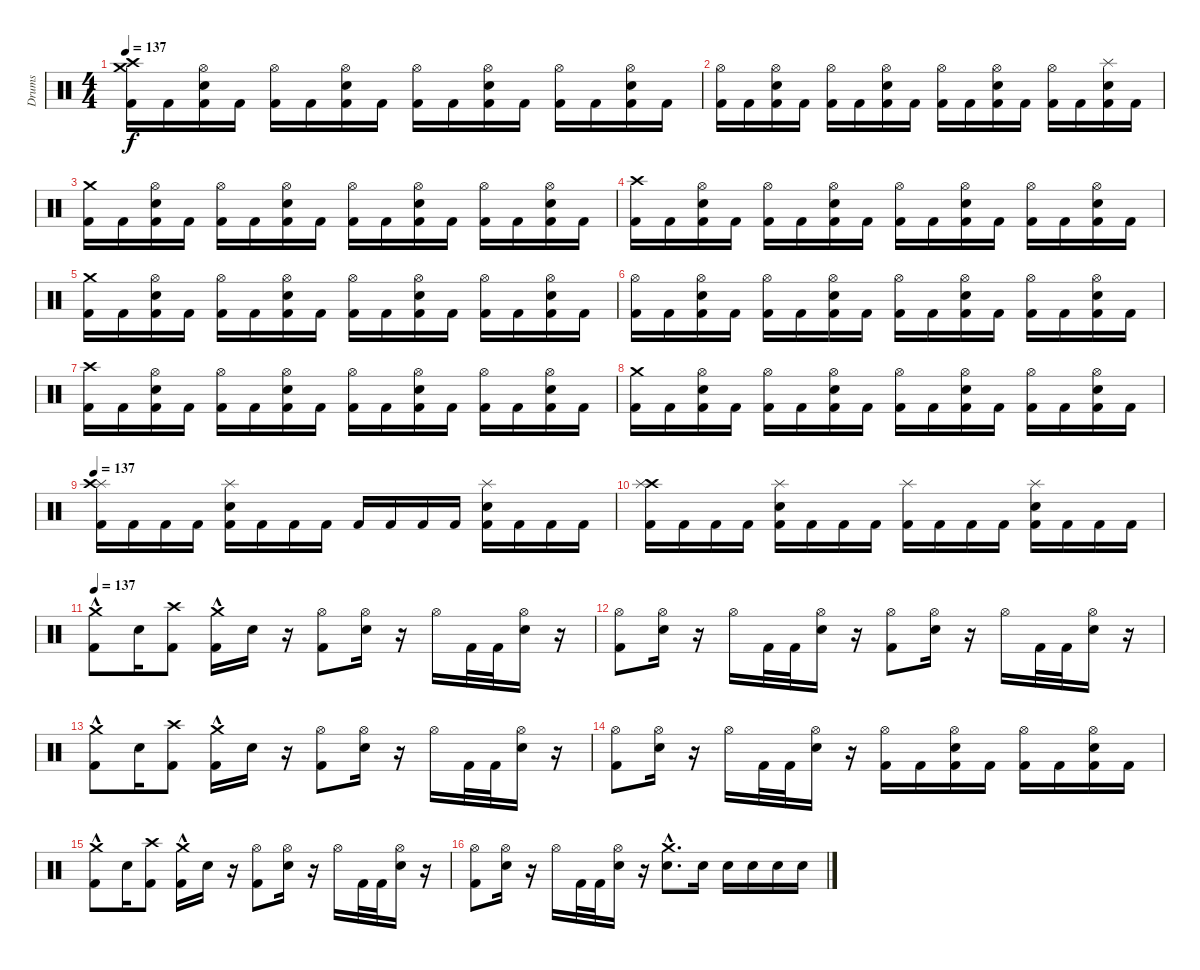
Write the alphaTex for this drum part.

\track ("Drums" "Drums") {instrument percussion}
\staff {score}
\articulation defaults
\ts (4 4)
\tempo 137
\clef neutral
\ks c
("Crash medium (hit)" "Crash high (hit)" "Kick (hit) 2").16{dy f} "Kick (hit) 2".16 ("Hi-Hat (open)" "Snare (hit) 2" "Kick (hit) 2").16 "Kick (hit) 2".16 ("Hi-Hat (open)" "Kick (hit) 2").16 "Kick (hit) 2".16 ("Hi-Hat (open)" "Snare (hit) 2" "Kick (hit) 2").16 "Kick (hit) 2".16 ("Hi-Hat (open)" "Kick (hit) 2").16 "Kick (hit) 2".16 ("Hi-Hat (open)" "Snare (hit) 2" "Kick (hit) 2").16 "Kick (hit) 2".16 ("Hi-Hat (open)" "Kick (hit) 2").16 "Kick (hit) 2".16 ("Hi-Hat (open)" "Snare (hit) 2" "Kick (hit) 2").16 "Kick (hit) 2".16 |
("Hi-Hat (open)" "Kick (hit) 2").16 "Kick (hit) 2".16 ("Hi-Hat (open)" "Snare (hit) 2" "Kick (hit) 2").16 "Kick (hit) 2".16 ("Hi-Hat (open)" "Kick (hit) 2").16 "Kick (hit) 2".16 ("Hi-Hat (open)" "Snare (hit) 2" "Kick (hit) 2").16 "Kick (hit) 2".16 ("Hi-Hat (open)" "Kick (hit) 2").16 "Kick (hit) 2".16 ("Hi-Hat (open)" "Snare (hit) 2" "Kick (hit) 2").16 "Kick (hit) 2".16 ("Hi-Hat (open)" "Kick (hit) 2").16 "Kick (hit) 2".16 ("Splash (hit)" "Snare (hit) 2" "Kick (hit) 2").16 "Kick (hit) 2".16 |
("Crash medium (hit)" "Kick (hit) 2").16 "Kick (hit) 2".16 ("Hi-Hat (open)" "Snare (hit) 2" "Kick (hit) 2").16 "Kick (hit) 2".16 ("Hi-Hat (open)" "Kick (hit) 2").16 "Kick (hit) 2".16 ("Hi-Hat (open)" "Snare (hit) 2" "Kick (hit) 2").16 "Kick (hit) 2".16 ("Hi-Hat (open)" "Kick (hit) 2").16 "Kick (hit) 2".16 ("Hi-Hat (open)" "Snare (hit) 2" "Kick (hit) 2").16 "Kick (hit) 2".16 ("Hi-Hat (open)" "Kick (hit) 2").16 "Kick (hit) 2".16 ("Hi-Hat (open)" "Snare (hit) 2" "Kick (hit) 2").16 "Kick (hit) 2".16 |
("Crash high (hit)" "Kick (hit) 2").16 "Kick (hit) 2".16 ("Hi-Hat (open)" "Snare (hit) 2" "Kick (hit) 2").16 "Kick (hit) 2".16 ("Hi-Hat (open)" "Kick (hit) 2").16 "Kick (hit) 2".16 ("Hi-Hat (open)" "Snare (hit) 2" "Kick (hit) 2").16 "Kick (hit) 2".16 ("Hi-Hat (open)" "Kick (hit) 2").16 "Kick (hit) 2".16 ("Hi-Hat (open)" "Snare (hit) 2" "Kick (hit) 2").16 "Kick (hit) 2".16 ("Hi-Hat (open)" "Kick (hit) 2").16 "Kick (hit) 2".16 ("Hi-Hat (open)" "Snare (hit) 2" "Kick (hit) 2").16 "Kick (hit) 2".16 |
("Crash medium (hit)" "Kick (hit) 2").16 "Kick (hit) 2".16 ("Hi-Hat (open)" "Snare (hit) 2" "Kick (hit) 2").16 "Kick (hit) 2".16 ("Hi-Hat (open)" "Kick (hit) 2").16 "Kick (hit) 2".16 ("Hi-Hat (open)" "Snare (hit) 2" "Kick (hit) 2").16 "Kick (hit) 2".16 ("Hi-Hat (open)" "Kick (hit) 2").16 "Kick (hit) 2".16 ("Hi-Hat (open)" "Snare (hit) 2" "Kick (hit) 2").16 "Kick (hit) 2".16 ("Hi-Hat (open)" "Kick (hit) 2").16 "Kick (hit) 2".16 ("Hi-Hat (open)" "Snare (hit) 2" "Kick (hit) 2").16 "Kick (hit) 2".16 |
("Hi-Hat (open)" "Kick (hit) 2").16 "Kick (hit) 2".16 ("Hi-Hat (open)" "Snare (hit) 2" "Kick (hit) 2").16 "Kick (hit) 2".16 ("Hi-Hat (open)" "Kick (hit) 2").16 "Kick (hit) 2".16 ("Hi-Hat (open)" "Snare (hit) 2" "Kick (hit) 2").16 "Kick (hit) 2".16 ("Hi-Hat (open)" "Kick (hit) 2").16 "Kick (hit) 2".16 ("Hi-Hat (open)" "Snare (hit) 2" "Kick (hit) 2").16 "Kick (hit) 2".16 ("Hi-Hat (open)" "Kick (hit) 2").16 "Kick (hit) 2".16 ("Hi-Hat (open)" "Snare (hit) 2" "Kick (hit) 2").16 "Kick (hit) 2".16 |
("Crash high (hit)" "Kick (hit) 2").16 "Kick (hit) 2".16 ("Hi-Hat (open)" "Snare (hit) 2" "Kick (hit) 2").16 "Kick (hit) 2".16 ("Hi-Hat (open)" "Kick (hit) 2").16 "Kick (hit) 2".16 ("Hi-Hat (open)" "Snare (hit) 2" "Kick (hit) 2").16 "Kick (hit) 2".16 ("Hi-Hat (open)" "Kick (hit) 2").16 "Kick (hit) 2".16 ("Hi-Hat (open)" "Snare (hit) 2" "Kick (hit) 2").16 "Kick (hit) 2".16 ("Hi-Hat (open)" "Kick (hit) 2").16 "Kick (hit) 2".16 ("Hi-Hat (open)" "Snare (hit) 2" "Kick (hit) 2").16 "Kick (hit) 2".16 |
("Crash medium (hit)" "Kick (hit) 2").16 "Kick (hit) 2".16 ("Hi-Hat (open)" "Snare (hit) 2" "Kick (hit) 2").16 "Kick (hit) 2".16 ("Hi-Hat (open)" "Kick (hit) 2").16 "Kick (hit) 2".16 ("Hi-Hat (open)" "Snare (hit) 2" "Kick (hit) 2").16 "Kick (hit) 2".16 ("Hi-Hat (open)" "Kick (hit) 2").16 "Kick (hit) 2".16 ("Hi-Hat (open)" "Snare (hit) 2" "Kick (hit) 2").16 "Kick (hit) 2".16 ("Hi-Hat (open)" "Kick (hit) 2").16 "Kick (hit) 2".16 ("Hi-Hat (open)" "Snare (hit) 2" "Kick (hit) 2").16 "Kick (hit) 2".16 |
\tempo 137
("Splash (hit)" "Crash high (hit)" "Kick (hit) 2").16 "Kick (hit) 2".16 "Kick (hit) 2".16 "Kick (hit) 2".16 ("Splash (hit)" "Snare (hit) 2" "Kick (hit) 2").16 "Kick (hit) 2".16 "Kick (hit) 2".16 "Kick (hit) 2".16 "Kick (hit) 2".16 "Kick (hit) 2".16 "Kick (hit) 2".16 "Kick (hit) 2".16 ("Splash (hit)" "Snare (hit) 2" "Kick (hit) 2").16 "Kick (hit) 2".16 "Kick (hit) 2".16 "Kick (hit) 2".16 |
("Crash high (hit)" "Splash (hit)" "Kick (hit) 2").16 "Kick (hit) 2".16 "Kick (hit) 2".16 "Kick (hit) 2".16 ("Splash (hit)" "Snare (hit) 2" "Kick (hit) 2").16 "Kick (hit) 2".16 "Kick (hit) 2".16 "Kick (hit) 2".16 ("Splash (hit)" "Kick (hit) 2").16 "Kick (hit) 2".16 "Kick (hit) 2".16 "Kick (hit) 2".16 ("Splash (hit)" "Snare (hit) 2" "Kick (hit) 2").16 "Kick (hit) 2".16 "Kick (hit) 2".16 "Kick (hit) 2".16 |
\tempo 137
("Crash medium (hit)"{hac} "Kick (hit) 2").8 "Snare (hit) 2".16 ("Crash high (hit)" "Kick (hit) 2").8 ("Crash medium (hit)"{hac} "Kick (hit) 2").16 "Snare (hit) 2".16 r.16 ("Hi-Hat (open)" "Kick (hit) 2").8 ("Hi-Hat (open)" "Snare (hit) 2").16 r.16 "Hi-Hat (open)".16 "Kick (hit) 2".32 "Kick (hit) 2".32 ("Hi-Hat (open)" "Snare (hit) 2").16 r.16 |
("Hi-Hat (open)" "Kick (hit) 2").8 ("Hi-Hat (open)" "Snare (hit) 2").16 r.16 "Hi-Hat (open)".16 "Kick (hit) 2".32 "Kick (hit) 2".32 ("Hi-Hat (open)" "Snare (hit) 2").16 r.16 ("Hi-Hat (open)" "Kick (hit) 2").8 ("Hi-Hat (open)" "Snare (hit) 2").16 r.16 "Hi-Hat (open)".16 "Kick (hit) 2".32 "Kick (hit) 2".32 ("Hi-Hat (open)" "Snare (hit) 2").16 r.16 |
("Crash medium (hit)"{hac} "Kick (hit) 2").8 "Snare (hit) 2".16 ("Crash high (hit)" "Kick (hit) 2").8 ("Crash medium (hit)"{hac} "Kick (hit) 2").16 "Snare (hit) 2".16 r.16 ("Hi-Hat (open)" "Kick (hit) 2").8 ("Hi-Hat (open)" "Snare (hit) 2").16 r.16 "Hi-Hat (open)".16 "Kick (hit) 2".32 "Kick (hit) 2".32 ("Hi-Hat (open)" "Snare (hit) 2").16 r.16 |
("Hi-Hat (open)" "Kick (hit) 2").8 ("Hi-Hat (open)" "Snare (hit) 2").16 r.16 "Hi-Hat (open)".16 "Kick (hit) 2".32 "Kick (hit) 2".32 ("Hi-Hat (open)" "Snare (hit) 2").16 r.16 ("Hi-Hat (open)" "Kick (hit) 2").16 "Kick (hit) 2".16 ("Hi-Hat (open)" "Snare (hit) 2" "Kick (hit) 2").16 "Kick (hit) 2".16 ("Hi-Hat (open)" "Kick (hit) 2").16 "Kick (hit) 2".16 ("Hi-Hat (open)" "Snare (hit) 2" "Kick (hit) 2").16 "Kick (hit) 2".16 |
("Crash medium (hit)"{hac} "Kick (hit) 2").8 "Snare (hit) 2".16 ("Crash high (hit)" "Kick (hit) 2").8 ("Crash medium (hit)"{hac} "Kick (hit) 2").16 "Snare (hit) 2".16 r.16 ("Hi-Hat (open)" "Kick (hit) 2").8 ("Hi-Hat (open)" "Snare (hit) 2").16 r.16 "Hi-Hat (open)".16 "Kick (hit) 2".32 "Kick (hit) 2".32 ("Hi-Hat (open)" "Snare (hit) 2").16 r.16 |
("Hi-Hat (open)" "Kick (hit) 2").8 ("Hi-Hat (open)" "Snare (hit) 2").16 r.16 "Hi-Hat (open)".16 "Kick (hit) 2".32 "Kick (hit) 2".32 ("Hi-Hat (open)" "Snare (hit) 2").16 r.16 ("Crash medium (hit)" "Snare (hit) 2"{hac}).8{d} "Snare (hit) 2".16 "Snare (hit) 2".16 "Snare (hit) 2".16 "Snare (hit) 2".16 "Snare (hit) 2".16
